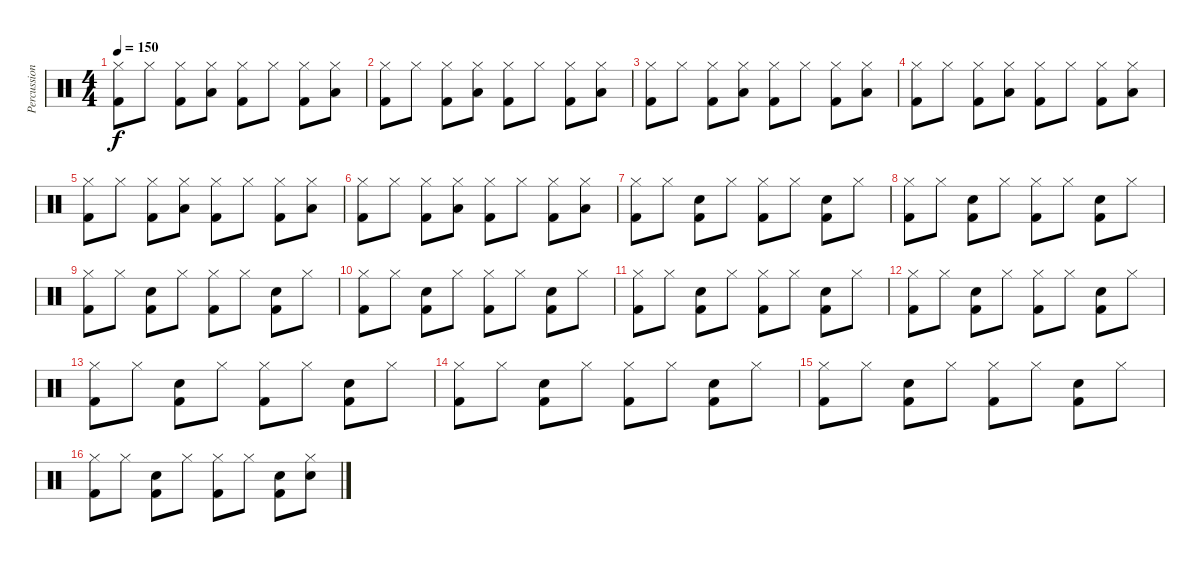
\track ("Percussion" "Percussion") {instrument percussion}
\staff {score}
\articulation defaults
\ts (4 4)
\tempo 150
\clef neutral
\ks c
("Hi-Hat (closed)" "Kick (hit) 2").8{dy f} "Hi-Hat (closed)".8 ("Hi-Hat (closed)" "Kick (hit) 2").8 ("Hi-Hat (closed)" "Low Floor Tom (hit)").8 ("Hi-Hat (closed)" "Kick (hit) 2").8 "Hi-Hat (closed)".8 ("Hi-Hat (closed)" "Kick (hit) 2").8 ("Hi-Hat (closed)" "Low Floor Tom (hit)").8 |
("Hi-Hat (closed)" "Kick (hit) 2").8 "Hi-Hat (closed)".8 ("Hi-Hat (closed)" "Kick (hit) 2").8 ("Hi-Hat (closed)" "Low Floor Tom (hit)").8 ("Hi-Hat (closed)" "Kick (hit) 2").8 "Hi-Hat (closed)".8 ("Hi-Hat (closed)" "Kick (hit) 2").8 ("Hi-Hat (closed)" "Low Floor Tom (hit)").8 |
("Hi-Hat (closed)" "Kick (hit) 2").8 "Hi-Hat (closed)".8 ("Hi-Hat (closed)" "Kick (hit) 2").8 ("Hi-Hat (closed)" "Low Floor Tom (hit)").8 ("Hi-Hat (closed)" "Kick (hit) 2").8 "Hi-Hat (closed)".8 ("Hi-Hat (closed)" "Kick (hit) 2").8 ("Hi-Hat (closed)" "Low Floor Tom (hit)").8 |
("Hi-Hat (closed)" "Kick (hit) 2").8 "Hi-Hat (closed)".8 ("Hi-Hat (closed)" "Kick (hit) 2").8 ("Hi-Hat (closed)" "Low Floor Tom (hit)").8 ("Hi-Hat (closed)" "Kick (hit) 2").8 "Hi-Hat (closed)".8 ("Hi-Hat (closed)" "Kick (hit) 2").8 ("Hi-Hat (closed)" "Low Floor Tom (hit)").8 |
("Hi-Hat (closed)" "Kick (hit) 2").8 "Hi-Hat (closed)".8 ("Hi-Hat (closed)" "Kick (hit) 2").8 ("Hi-Hat (closed)" "Low Floor Tom (hit)").8 ("Hi-Hat (closed)" "Kick (hit) 2").8 "Hi-Hat (closed)".8 ("Hi-Hat (closed)" "Kick (hit) 2").8 ("Hi-Hat (closed)" "Low Floor Tom (hit)").8 |
("Hi-Hat (closed)" "Kick (hit) 2").8 "Hi-Hat (closed)".8 ("Hi-Hat (closed)" "Kick (hit) 2").8 ("Hi-Hat (closed)" "Low Floor Tom (hit)").8 ("Hi-Hat (closed)" "Kick (hit) 2").8 "Hi-Hat (closed)".8 ("Hi-Hat (closed)" "Kick (hit) 2").8 ("Hi-Hat (closed)" "Low Floor Tom (hit)").8 |
("Hi-Hat (closed)" "Kick (hit) 2").8 "Hi-Hat (closed)".8 ("Snare (hit) 2" "Kick (hit) 2").8 "Hi-Hat (closed)".8 ("Hi-Hat (closed)" "Kick (hit) 2").8 "Hi-Hat (closed)".8 ("Snare (hit) 2" "Kick (hit) 2").8 "Hi-Hat (closed)".8 |
("Hi-Hat (closed)" "Kick (hit) 2").8 "Hi-Hat (closed)".8 ("Snare (hit) 2" "Kick (hit) 2").8 "Hi-Hat (closed)".8 ("Hi-Hat (closed)" "Kick (hit) 2").8 "Hi-Hat (closed)".8 ("Snare (hit) 2" "Kick (hit) 2").8 "Hi-Hat (closed)".8 |
("Hi-Hat (closed)" "Kick (hit) 2").8 "Hi-Hat (closed)".8 ("Snare (hit) 2" "Kick (hit) 2").8 "Hi-Hat (closed)".8 ("Hi-Hat (closed)" "Kick (hit) 2").8 "Hi-Hat (closed)".8 ("Snare (hit) 2" "Kick (hit) 2").8 "Hi-Hat (closed)".8 |
("Hi-Hat (closed)" "Kick (hit) 2").8 "Hi-Hat (closed)".8 ("Snare (hit) 2" "Kick (hit) 2").8 "Hi-Hat (closed)".8 ("Hi-Hat (closed)" "Kick (hit) 2").8 "Hi-Hat (closed)".8 ("Snare (hit) 2" "Kick (hit) 2").8 "Hi-Hat (closed)".8 |
("Hi-Hat (closed)" "Kick (hit) 2").8 "Hi-Hat (closed)".8 ("Snare (hit) 2" "Kick (hit) 2").8 "Hi-Hat (closed)".8 ("Hi-Hat (closed)" "Kick (hit) 2").8 "Hi-Hat (closed)".8 ("Snare (hit) 2" "Kick (hit) 2").8 "Hi-Hat (closed)".8 |
("Hi-Hat (closed)" "Kick (hit) 2").8 "Hi-Hat (closed)".8 ("Snare (hit) 2" "Kick (hit) 2").8 "Hi-Hat (closed)".8 ("Hi-Hat (closed)" "Kick (hit) 2").8 "Hi-Hat (closed)".8 ("Snare (hit) 2" "Kick (hit) 2").8 "Hi-Hat (closed)".8 |
("Hi-Hat (closed)" "Kick (hit) 2").8 "Hi-Hat (closed)".8 ("Snare (hit) 2" "Kick (hit) 2").8 "Hi-Hat (closed)".8 ("Hi-Hat (closed)" "Kick (hit) 2").8 "Hi-Hat (closed)".8 ("Snare (hit) 2" "Kick (hit) 2").8 "Hi-Hat (closed)".8 |
("Hi-Hat (closed)" "Kick (hit) 2").8 "Hi-Hat (closed)".8 ("Snare (hit) 2" "Kick (hit) 2").8 "Hi-Hat (closed)".8 ("Hi-Hat (closed)" "Kick (hit) 2").8 "Hi-Hat (closed)".8 ("Snare (hit) 2" "Kick (hit) 2").8 "Hi-Hat (closed)".8 |
("Hi-Hat (closed)" "Kick (hit) 2").8 "Hi-Hat (closed)".8 ("Snare (hit) 2" "Kick (hit) 2").8 "Hi-Hat (closed)".8 ("Hi-Hat (closed)" "Kick (hit) 2").8 "Hi-Hat (closed)".8 ("Snare (hit) 2" "Kick (hit) 2").8 "Hi-Hat (closed)".8 |
("Hi-Hat (closed)" "Kick (hit) 2").8 "Hi-Hat (closed)".8 ("Snare (hit) 2" "Kick (hit) 2").8 "Hi-Hat (closed)".8 ("Hi-Hat (closed)" "Kick (hit) 2").8 "Hi-Hat (closed)".8 ("Snare (hit) 2" "Kick (hit) 2").8 ("Hi-Hat (closed)" "Snare (hit) 2").8
